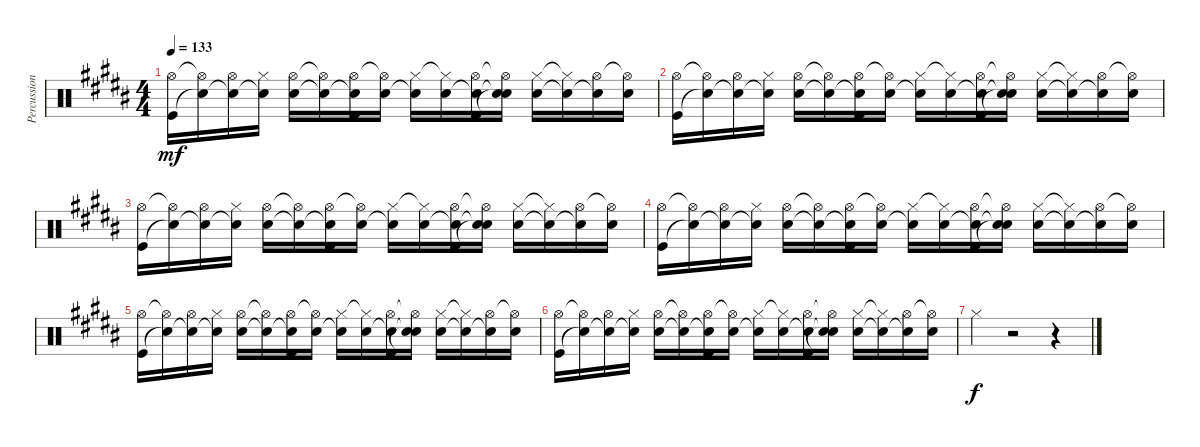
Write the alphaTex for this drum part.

\track ("Percussion" "Percussion") {instrument percussion}
\staff {score}
\articulation defaults
\ts (4 4)
\tempo 133
\clef neutral
\ks b
("Hi-Hat (open)" "Kick (hit)").16{dy mf} ("Hi-Hat (open)"{t} "Snare (hit)"{t}).16 ("Hi-Hat (open)" "Snare (hit)"{t}).16 ("Hi-Hat (closed)" "Snare (hit)"{t}).16 ("Hi-Hat (open)" "Electric Snare (hit)").16 ("Hi-Hat (open)"{t} "Snare (hit)"{t}).16 ("Hi-Hat (open)" "Snare (hit)"{t} "Kick (hit)").16 ("Hi-Hat (open)"{t} "Electric Snare (hit)").16 ("Hi-Hat (closed)" "Snare (hit)"{t}).16 ("Hi-Hat (closed)"{t} "Electric Snare (hit)").16 ("Hi-Hat (open)" "Electric Snare (hit)"{t} "Kick (hit)").16 ("Hi-Hat (open)"{t} "Snare (hit)"{t} "Snare (hit)"{t}).16 ("Hi-Hat (closed)" "Electric Snare (hit)").16 ("Hi-Hat (closed)"{t} "Snare (hit)"{t}).16 ("Hi-Hat (open)" "Snare (hit)"{t}).16 ("Hi-Hat (open)"{t} "Electric Snare (hit)").16 |
("Hi-Hat (open)" "Kick (hit)").16 ("Hi-Hat (open)"{t} "Snare (hit)"{t}).16 ("Hi-Hat (open)" "Snare (hit)"{t}).16 ("Hi-Hat (closed)" "Snare (hit)"{t}).16 ("Hi-Hat (open)" "Electric Snare (hit)").16 ("Hi-Hat (open)"{t} "Snare (hit)"{t}).16 ("Hi-Hat (open)" "Snare (hit)"{t} "Kick (hit)").16 ("Hi-Hat (open)"{t} "Electric Snare (hit)").16 ("Hi-Hat (closed)" "Snare (hit)"{t}).16 ("Hi-Hat (closed)"{t} "Electric Snare (hit)").16 ("Hi-Hat (open)" "Electric Snare (hit)"{t} "Kick (hit)").16 ("Hi-Hat (open)"{t} "Snare (hit)"{t} "Snare (hit)"{t}).16 ("Hi-Hat (closed)" "Electric Snare (hit)").16 ("Hi-Hat (closed)"{t} "Snare (hit)"{t}).16 ("Hi-Hat (open)" "Snare (hit)"{t}).16 ("Hi-Hat (open)"{t} "Electric Snare (hit)").16 |
("Hi-Hat (open)" "Kick (hit)").16 ("Hi-Hat (open)"{t} "Snare (hit)"{t}).16 ("Hi-Hat (open)" "Snare (hit)"{t}).16 ("Hi-Hat (closed)" "Snare (hit)"{t}).16 ("Hi-Hat (open)" "Electric Snare (hit)").16 ("Hi-Hat (open)"{t} "Snare (hit)"{t}).16 ("Hi-Hat (open)" "Snare (hit)"{t} "Kick (hit)").16 ("Hi-Hat (open)"{t} "Electric Snare (hit)").16 ("Hi-Hat (closed)" "Snare (hit)"{t}).16 ("Hi-Hat (closed)"{t} "Electric Snare (hit)").16 ("Hi-Hat (open)" "Electric Snare (hit)"{t} "Kick (hit)").16 ("Hi-Hat (open)"{t} "Snare (hit)"{t} "Snare (hit)"{t}).16 ("Hi-Hat (closed)" "Electric Snare (hit)").16 ("Hi-Hat (closed)"{t} "Snare (hit)"{t}).16 ("Hi-Hat (open)" "Snare (hit)"{t}).16 ("Hi-Hat (open)"{t} "Electric Snare (hit)").16 |
("Hi-Hat (open)" "Kick (hit)").16 ("Hi-Hat (open)"{t} "Snare (hit)"{t}).16 ("Hi-Hat (open)" "Snare (hit)"{t}).16 ("Hi-Hat (closed)" "Snare (hit)"{t}).16 ("Hi-Hat (open)" "Electric Snare (hit)").16 ("Hi-Hat (open)"{t} "Snare (hit)"{t}).16 ("Hi-Hat (open)" "Snare (hit)"{t} "Kick (hit)").16 ("Hi-Hat (open)"{t} "Electric Snare (hit)").16 ("Hi-Hat (closed)" "Snare (hit)"{t}).16 ("Hi-Hat (closed)"{t} "Electric Snare (hit)").16 ("Hi-Hat (open)" "Electric Snare (hit)"{t} "Kick (hit)").16 ("Hi-Hat (open)"{t} "Snare (hit)"{t} "Snare (hit)"{t}).16 ("Hi-Hat (closed)" "Electric Snare (hit)").16 ("Hi-Hat (closed)"{t} "Snare (hit)"{t}).16 ("Hi-Hat (open)" "Snare (hit)"{t}).16 ("Hi-Hat (open)"{t} "Electric Snare (hit)").16 |
("Hi-Hat (open)" "Kick (hit)").16 ("Hi-Hat (open)"{t} "Snare (hit)"{t}).16 ("Hi-Hat (open)" "Snare (hit)"{t}).16 ("Hi-Hat (closed)" "Snare (hit)"{t}).16 ("Hi-Hat (open)" "Electric Snare (hit)").16 ("Hi-Hat (open)"{t} "Snare (hit)"{t}).16 ("Hi-Hat (open)" "Snare (hit)"{t} "Kick (hit)").16 ("Hi-Hat (open)"{t} "Electric Snare (hit)").16 ("Hi-Hat (closed)" "Snare (hit)"{t}).16 ("Hi-Hat (closed)"{t} "Electric Snare (hit)").16 ("Hi-Hat (open)" "Electric Snare (hit)"{t} "Kick (hit)").16 ("Hi-Hat (open)"{t} "Snare (hit)"{t} "Snare (hit)"{t}).16 ("Hi-Hat (closed)" "Electric Snare (hit)").16 ("Hi-Hat (closed)"{t} "Snare (hit)"{t}).16 ("Hi-Hat (open)" "Snare (hit)"{t}).16 ("Hi-Hat (open)"{t} "Electric Snare (hit)").16 |
("Hi-Hat (open)" "Kick (hit)").16 ("Hi-Hat (open)"{t} "Snare (hit)"{t}).16 ("Hi-Hat (open)" "Snare (hit)"{t}).16 ("Hi-Hat (closed)" "Snare (hit)"{t}).16 ("Hi-Hat (open)" "Electric Snare (hit)").16 ("Hi-Hat (open)"{t} "Snare (hit)"{t}).16 ("Hi-Hat (open)" "Snare (hit)"{t} "Kick (hit)").16 ("Hi-Hat (open)"{t} "Electric Snare (hit)").16 ("Hi-Hat (closed)" "Snare (hit)"{t}).16 ("Hi-Hat (closed)"{t} "Electric Snare (hit)").16 ("Hi-Hat (open)" "Electric Snare (hit)"{t} "Kick (hit)").16 ("Hi-Hat (open)"{t} "Snare (hit)"{t} "Snare (hit)"{t}).16 ("Hi-Hat (closed)" "Electric Snare (hit)").16 ("Hi-Hat (closed)"{t} "Snare (hit)"{t}).16 ("Hi-Hat (open)" "Snare (hit)"{t}).16 ("Hi-Hat (open)"{t} "Electric Snare (hit)").16 |
"Hi-Hat (closed)".4{dy f} r.2 r.4
